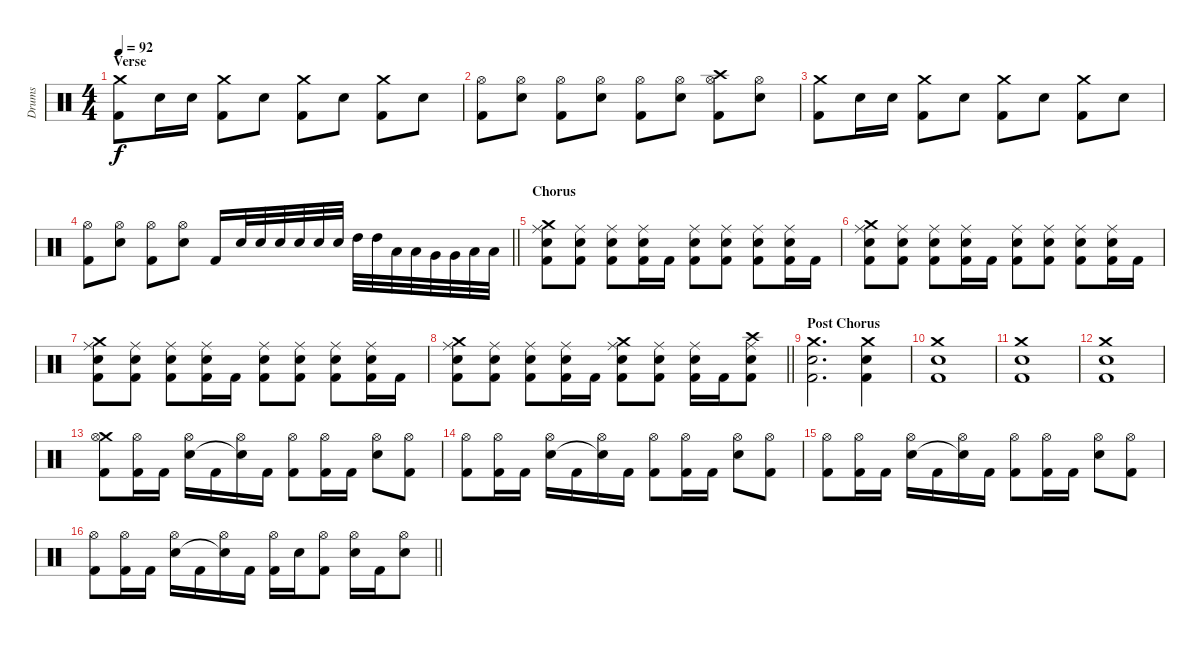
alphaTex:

\track ("Drums" "Drums") {instrument percussion}
\staff {score}
\articulation defaults
\ts (4 4)
\section ("" "Verse")
\tempo 92
\clef neutral
\ks c
("Crash medium (hit)" "Kick (hit) 2").8{dy f} "Electric Snare (hit)".16 "Electric Snare (hit)".16 ("Crash medium (hit)" "Kick (hit) 2").8 "Electric Snare (hit)".8 ("Crash medium (hit)" "Kick (hit) 2").8 "Electric Snare (hit)".8 ("Crash medium (hit)" "Kick (hit) 2").8 "Electric Snare (hit)".8 |
("Hi-Hat (open)" "Kick (hit) 2").8 ("Hi-Hat (open)" "Electric Snare (hit)").8 ("Hi-Hat (open)" "Kick (hit) 2").8 ("Hi-Hat (open)" "Electric Snare (hit)").8 ("Hi-Hat (open)" "Kick (hit) 2").8 ("Hi-Hat (open)" "Electric Snare (hit)").8 ("Crash high (hit)" "Hi-Hat (open)" "Kick (hit) 2").8 ("Hi-Hat (open)" "Electric Snare (hit)").8 |
("Crash medium (hit)" "Kick (hit) 2").8 "Electric Snare (hit)".16 "Electric Snare (hit)".16 ("Crash medium (hit)" "Kick (hit) 2").8 "Electric Snare (hit)".8 ("Crash medium (hit)" "Kick (hit) 2").8 "Electric Snare (hit)".8 ("Crash medium (hit)" "Kick (hit) 2").8 "Electric Snare (hit)".8 |
\barLineRight lightlight
("Hi-Hat (open)" "Kick (hit) 2").8 ("Hi-Hat (open)" "Electric Snare (hit)").8 ("Hi-Hat (open)" "Kick (hit) 2").8 ("Hi-Hat (open)" "Electric Snare (hit)").8 "Kick (hit) 2".16 "Electric Snare (hit)".32 "Electric Snare (hit)".32 "Electric Snare (hit)".32 "Electric Snare (hit)".32 "Electric Snare (hit)".32 "Electric Snare (hit)".32 "High Tom (hit)".32 "High Tom (hit)".32 "Low Tom (hit)".32 "Low Tom (hit)".32 "Very Low Tom (hit)".32 "Very Low Tom (hit)".32 "Low Floor Tom (hit)".32 "Low Floor Tom (hit)".32 |
\section ("" "Chorus")
("Crash medium (hit)" "Ride (middle)" "Electric Snare (hit)" "Kick (hit) 2").8 ("Ride (middle)" "Electric Snare (hit)" "Kick (hit) 2").8 ("Ride (middle)" "Electric Snare (hit)" "Kick (hit) 2").8 ("Ride (middle)" "Electric Snare (hit)" "Kick (hit) 2").16 "Kick (hit) 2".16 ("Ride (middle)" "Electric Snare (hit)" "Kick (hit) 2").8 ("Ride (middle)" "Electric Snare (hit)" "Kick (hit) 2").8 ("Ride (middle)" "Electric Snare (hit)" "Kick (hit) 2").8 ("Ride (middle)" "Electric Snare (hit)" "Kick (hit) 2").16 "Kick (hit) 2".16 |
("Crash medium (hit)" "Ride (middle)" "Electric Snare (hit)" "Kick (hit) 2").8 ("Ride (middle)" "Electric Snare (hit)" "Kick (hit) 2").8 ("Ride (middle)" "Electric Snare (hit)" "Kick (hit) 2").8 ("Ride (middle)" "Electric Snare (hit)" "Kick (hit) 2").16 "Kick (hit) 2".16 ("Ride (middle)" "Electric Snare (hit)" "Kick (hit) 2").8 ("Ride (middle)" "Electric Snare (hit)" "Kick (hit) 2").8 ("Ride (middle)" "Electric Snare (hit)" "Kick (hit) 2").8 ("Ride (middle)" "Electric Snare (hit)" "Kick (hit) 2").16 "Kick (hit) 2".16 |
("Crash medium (hit)" "Ride (middle)" "Electric Snare (hit)" "Kick (hit) 2").8 ("Ride (middle)" "Electric Snare (hit)" "Kick (hit) 2").8 ("Ride (middle)" "Electric Snare (hit)" "Kick (hit) 2").8 ("Ride (middle)" "Electric Snare (hit)" "Kick (hit) 2").16 "Kick (hit) 2".16 ("Ride (middle)" "Electric Snare (hit)" "Kick (hit) 2").8 ("Ride (middle)" "Electric Snare (hit)" "Kick (hit) 2").8 ("Ride (middle)" "Electric Snare (hit)" "Kick (hit) 2").8 ("Ride (middle)" "Electric Snare (hit)" "Kick (hit) 2").16 "Kick (hit) 2".16 |
\barLineRight lightlight
("Crash medium (hit)" "Ride (middle)" "Electric Snare (hit)" "Kick (hit) 2").8 ("Ride (middle)" "Electric Snare (hit)" "Kick (hit) 2").8 ("Ride (middle)" "Electric Snare (hit)" "Kick (hit) 2").8 ("Ride (middle)" "Electric Snare (hit)" "Kick (hit) 2").16 "Kick (hit) 2".16 ("Crash medium (hit)" "Ride (middle)" "Electric Snare (hit)" "Kick (hit) 2").8 ("Ride (middle)" "Electric Snare (hit)" "Kick (hit) 2").8 ("Ride (middle)" "Electric Snare (hit)" "Kick (hit) 2").16 "Kick (hit) 2".16 ("Crash high (hit)" "Ride (middle)" "Electric Snare (hit)" "Kick (hit) 2").8 |
\section ("" "Post Chorus")
("Crash medium (hit)" "Electric Snare (hit)" "Kick (hit) 2").2{d} ("Crash medium (hit)" "Electric Snare (hit)" "Kick (hit) 2").4 |
("Crash medium (hit)" "Electric Snare (hit)" "Kick (hit) 2").1 |
("Crash medium (hit)" "Electric Snare (hit)" "Kick (hit) 2").1 |
("Crash medium (hit)" "Electric Snare (hit)" "Kick (hit) 2").1 |
("Crash medium (hit)" "Hi-Hat (open)" "Kick (hit) 2").8 ("Hi-Hat (open)" "Kick (hit) 2").16 "Kick (hit) 2".16 ("Hi-Hat (open)" "Electric Snare (hit)").16 "Kick (hit) 2".16 ("Hi-Hat (open)" "Snare (hit)"{t}).16 "Kick (hit) 2".16 ("Hi-Hat (open)" "Kick (hit) 2").8 ("Hi-Hat (open)" "Kick (hit) 2").16 "Kick (hit) 2".16 ("Hi-Hat (open)" "Electric Snare (hit)").8 ("Hi-Hat (open)" "Kick (hit) 2").8 |
("Hi-Hat (open)" "Kick (hit) 2").8 ("Hi-Hat (open)" "Kick (hit) 2").16 "Kick (hit) 2".16 ("Hi-Hat (open)" "Electric Snare (hit)").16 "Kick (hit) 2".16 ("Hi-Hat (open)" "Snare (hit)"{t}).16 "Kick (hit) 2".16 ("Hi-Hat (open)" "Kick (hit) 2").8 ("Hi-Hat (open)" "Kick (hit) 2").16 "Kick (hit) 2".16 ("Hi-Hat (open)" "Electric Snare (hit)").8 ("Hi-Hat (open)" "Kick (hit) 2").8 |
("Hi-Hat (open)" "Kick (hit) 2").8 ("Hi-Hat (open)" "Kick (hit) 2").16 "Kick (hit) 2".16 ("Hi-Hat (open)" "Electric Snare (hit)").16 "Kick (hit) 2".16 ("Hi-Hat (open)" "Snare (hit)"{t}).16 "Kick (hit) 2".16 ("Hi-Hat (open)" "Kick (hit) 2").8 ("Hi-Hat (open)" "Kick (hit) 2").16 "Kick (hit) 2".16 ("Hi-Hat (open)" "Electric Snare (hit)").8 ("Hi-Hat (open)" "Kick (hit) 2").8 |
\barLineRight lightlight
("Hi-Hat (open)" "Kick (hit) 2").8 ("Hi-Hat (open)" "Kick (hit) 2").16 "Kick (hit) 2".16 ("Hi-Hat (open)" "Electric Snare (hit)").16 "Kick (hit) 2".16 ("Hi-Hat (open)" "Snare (hit)"{t}).16 "Kick (hit) 2".16 ("Hi-Hat (open)" "Kick (hit) 2").16 "Electric Snare (hit)".16 ("Hi-Hat (open)" "Kick (hit) 2").8 ("Hi-Hat (open)" "Electric Snare (hit)").16 "Kick (hit) 2".16 ("Hi-Hat (open)" "Electric Snare (hit)").8
